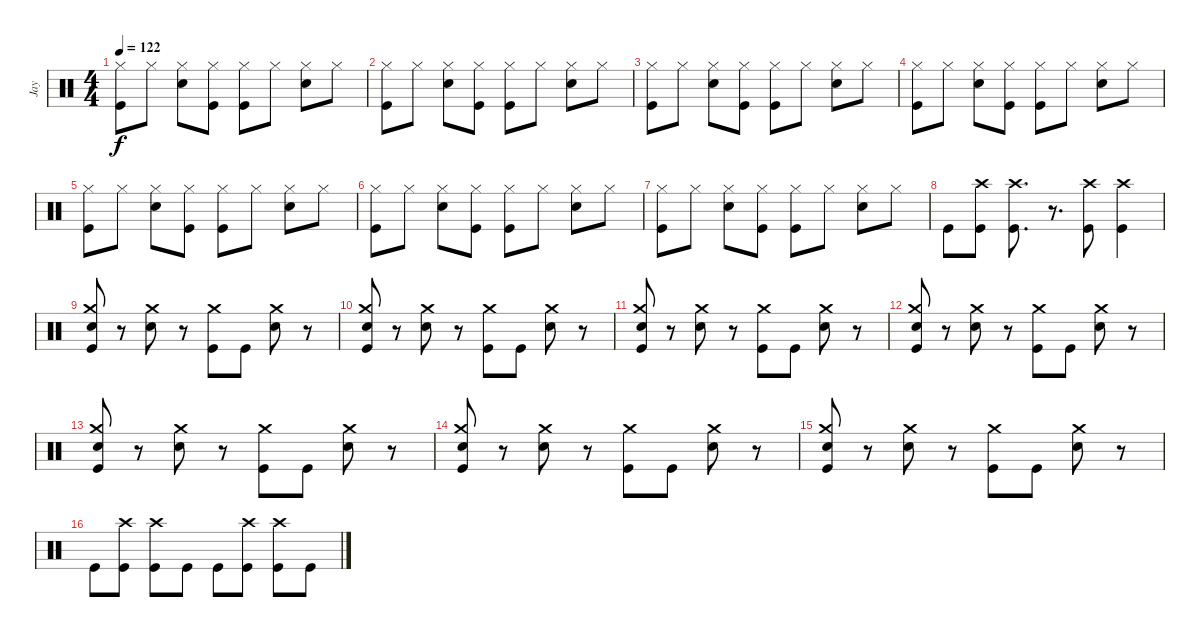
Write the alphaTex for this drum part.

\track ("Jay" "Jay") {instrument percussion}
\staff {score}
\articulation defaults
\ts (4 4)
\tempo 122
\clef neutral
\ks c
("Hi-Hat (closed)" "Kick (hit)").8{dy f} "Hi-Hat (closed)".8 ("Hi-Hat (closed)" "Electric Snare (hit)").8 ("Hi-Hat (closed)" "Kick (hit)").8 ("Hi-Hat (closed)" "Kick (hit)").8 "Hi-Hat (closed)".8 ("Hi-Hat (closed)" "Electric Snare (hit)").8 "Hi-Hat (closed)".8 |
("Hi-Hat (closed)" "Kick (hit)").8 "Hi-Hat (closed)".8 ("Hi-Hat (closed)" "Electric Snare (hit)").8 ("Hi-Hat (closed)" "Kick (hit)").8 ("Hi-Hat (closed)" "Kick (hit)").8 "Hi-Hat (closed)".8 ("Hi-Hat (closed)" "Electric Snare (hit)").8 "Hi-Hat (closed)".8 |
("Hi-Hat (closed)" "Kick (hit)").8 "Hi-Hat (closed)".8 ("Hi-Hat (closed)" "Electric Snare (hit)").8 ("Hi-Hat (closed)" "Kick (hit)").8 ("Hi-Hat (closed)" "Kick (hit)").8 "Hi-Hat (closed)".8 ("Hi-Hat (closed)" "Electric Snare (hit)").8 "Hi-Hat (closed)".8 |
("Hi-Hat (closed)" "Kick (hit)").8 "Hi-Hat (closed)".8 ("Hi-Hat (closed)" "Electric Snare (hit)").8 ("Hi-Hat (closed)" "Kick (hit)").8 ("Hi-Hat (closed)" "Kick (hit)").8 "Hi-Hat (closed)".8 ("Hi-Hat (closed)" "Electric Snare (hit)").8 "Hi-Hat (closed)".8 |
("Hi-Hat (closed)" "Kick (hit)").8 "Hi-Hat (closed)".8 ("Hi-Hat (closed)" "Electric Snare (hit)").8 ("Hi-Hat (closed)" "Kick (hit)").8 ("Hi-Hat (closed)" "Kick (hit)").8 "Hi-Hat (closed)".8 ("Hi-Hat (closed)" "Electric Snare (hit)").8 "Hi-Hat (closed)".8 |
("Hi-Hat (closed)" "Kick (hit)").8 "Hi-Hat (closed)".8 ("Hi-Hat (closed)" "Electric Snare (hit)").8 ("Hi-Hat (closed)" "Kick (hit)").8 ("Hi-Hat (closed)" "Kick (hit)").8 "Hi-Hat (closed)".8 ("Hi-Hat (closed)" "Electric Snare (hit)").8 "Hi-Hat (closed)".8 |
("Hi-Hat (closed)" "Kick (hit)").8 "Hi-Hat (closed)".8 ("Hi-Hat (closed)" "Electric Snare (hit)").8 ("Hi-Hat (closed)" "Kick (hit)").8 ("Hi-Hat (closed)" "Kick (hit)").8 "Hi-Hat (closed)".8 ("Hi-Hat (closed)" "Electric Snare (hit)").8 "Hi-Hat (closed)".8 |
"Kick (hit)".8 ("Crash high (hit)" "Kick (hit)").8 ("Crash high (hit)" "Kick (hit)").8{d} r.8{d} ("Crash high (hit)" "Kick (hit)").8 ("Crash high (hit)" "Kick (hit)").4 |
("Crash medium (hit)" "Kick (hit)" "Snare (hit)").8 r.8 ("Crash medium (hit)" "Electric Snare (hit)").8 r.8 ("Crash medium (hit)" "Kick (hit)").8 "Kick (hit)".8 ("Crash medium (hit)" "Electric Snare (hit)").8 r.8 |
("Crash medium (hit)" "Kick (hit)" "Snare (hit)").8 r.8 ("Crash medium (hit)" "Electric Snare (hit)").8 r.8 ("Crash medium (hit)" "Kick (hit)").8 "Kick (hit)".8 ("Crash medium (hit)" "Electric Snare (hit)").8 r.8 |
("Crash medium (hit)" "Kick (hit)" "Snare (hit)").8 r.8 ("Crash medium (hit)" "Electric Snare (hit)").8 r.8 ("Crash medium (hit)" "Kick (hit)").8 "Kick (hit)".8 ("Crash medium (hit)" "Electric Snare (hit)").8 r.8 |
("Crash medium (hit)" "Kick (hit)" "Snare (hit)").8 r.8 ("Crash medium (hit)" "Electric Snare (hit)").8 r.8 ("Crash medium (hit)" "Kick (hit)").8 "Kick (hit)".8 ("Crash medium (hit)" "Electric Snare (hit)").8 r.8 |
("Crash medium (hit)" "Kick (hit)" "Snare (hit)").8 r.8 ("Crash medium (hit)" "Electric Snare (hit)").8 r.8 ("Crash medium (hit)" "Kick (hit)").8 "Kick (hit)".8 ("Crash medium (hit)" "Electric Snare (hit)").8 r.8 |
("Crash medium (hit)" "Kick (hit)" "Snare (hit)").8 r.8 ("Crash medium (hit)" "Electric Snare (hit)").8 r.8 ("Crash medium (hit)" "Kick (hit)").8 "Kick (hit)".8 ("Crash medium (hit)" "Electric Snare (hit)").8 r.8 |
("Crash medium (hit)" "Kick (hit)" "Snare (hit)").8 r.8 ("Crash medium (hit)" "Electric Snare (hit)").8 r.8 ("Crash medium (hit)" "Kick (hit)").8 "Kick (hit)".8 ("Crash medium (hit)" "Electric Snare (hit)").8 r.8 |
"Kick (hit)".8 ("Crash high (hit)" "Kick (hit)").8 ("Crash high (hit)" "Kick (hit)").8 "Kick (hit)".8 "Kick (hit)".8 ("Crash high (hit)" "Kick (hit)").8 ("Crash high (hit)" "Kick (hit)").8 "Kick (hit)".8
